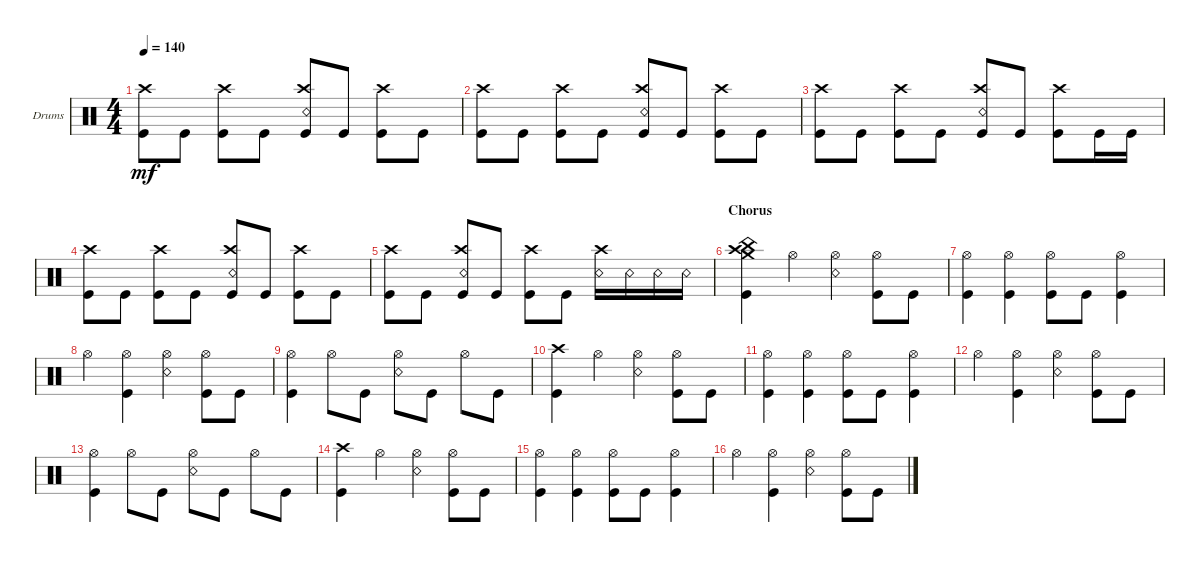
\bracketExtendMode groupsimilarinstruments
\firstSystemTrackNameOrientation horizontal
\otherSystemsTrackNameOrientation horizontal
\track ("Drumkit" "Drums") {instrument percussion}
\staff {score}
\articulation defaults
\ts (4 4)
\tempo 140
\clef neutral
\ks c
("Kick (hit)" "Crash high (hit)").8{dy mf} "Kick (hit)".8 ("Kick (hit)" "Crash high (hit)").8 "Kick (hit)".8 ("Kick (hit)" "Snare (rim shot)" "Crash high (hit)").8 "Kick (hit)".8 ("Kick (hit)" "Crash high (hit)").8 "Kick (hit)".8 |
("Kick (hit)" "Crash high (hit)").8 "Kick (hit)".8 ("Kick (hit)" "Crash high (hit)").8 "Kick (hit)".8 ("Kick (hit)" "Snare (rim shot)" "Crash high (hit)").8 "Kick (hit)".8 ("Kick (hit)" "Crash high (hit)").8 "Kick (hit)".8 |
("Kick (hit)" "Crash high (hit)").8 "Kick (hit)".8 ("Kick (hit)" "Crash high (hit)").8 "Kick (hit)".8 ("Kick (hit)" "Snare (rim shot)" "Crash high (hit)").8 "Kick (hit)".8 ("Kick (hit)" "Crash high (hit)").8 "Kick (hit)".16 "Kick (hit)".16 |
("Kick (hit)" "Crash high (hit)").8 "Kick (hit)".8 ("Kick (hit)" "Crash high (hit)").8 "Kick (hit)".8 ("Kick (hit)" "Snare (rim shot)" "Crash high (hit)").8 "Kick (hit)".8 ("Kick (hit)" "Crash high (hit)").8 "Kick (hit)".8 |
("Kick (hit)" "Crash high (hit)").8 "Kick (hit)".8 ("Kick (hit)" "Crash high (hit)" "Snare (rim shot)").8 "Kick (hit)".8 ("Kick (hit)" "Crash high (hit)").8 "Kick (hit)".8 ("Crash high (hit)" "Snare (rim shot)").16 "Snare (rim shot)".16 "Snare (rim shot)".16 "Snare (rim shot)".16 |
\section ("" "Chorus")
("Kick (hit)" "Crash high (hit)" "Crash medium (hit)" "China (hit)").4 "Hi-Hat (open)".4 ("Snare (rim shot)" "Hi-Hat (open)").4 ("Hi-Hat (open)" "Kick (hit)").8 "Kick (hit)".8 |
("Kick (hit)" "Hi-Hat (open)").4 ("Kick (hit)" "Hi-Hat (open)").4 ("Kick (hit)" "Hi-Hat (open)").8 "Kick (hit)".8 ("Kick (hit)" "Hi-Hat (open)").4 |
"Hi-Hat (open)".4 ("Hi-Hat (open)" "Kick (hit)").4 ("Hi-Hat (open)" "Snare (rim shot)").4 ("Hi-Hat (open)" "Kick (hit)").8 "Kick (hit)".8 |
("Kick (hit)" "Hi-Hat (open)").4 "Hi-Hat (open)".8 "Kick (hit)".8 ("Snare (rim shot)" "Hi-Hat (open)").8 "Kick (hit)".8 "Hi-Hat (open)".8 "Kick (hit)".8 |
("Kick (hit)" "Crash high (hit)").4 "Hi-Hat (open)".4 ("Snare (rim shot)" "Hi-Hat (open)").4 ("Hi-Hat (open)" "Kick (hit)").8 "Kick (hit)".8 |
("Kick (hit)" "Hi-Hat (open)").4 ("Kick (hit)" "Hi-Hat (open)").4 ("Kick (hit)" "Hi-Hat (open)").8 "Kick (hit)".8 ("Kick (hit)" "Hi-Hat (open)").4 |
"Hi-Hat (open)".4 ("Hi-Hat (open)" "Kick (hit)").4 ("Hi-Hat (open)" "Snare (rim shot)").4 ("Hi-Hat (open)" "Kick (hit)").8 "Kick (hit)".8 |
("Kick (hit)" "Hi-Hat (open)").4 "Hi-Hat (open)".8 "Kick (hit)".8 ("Snare (rim shot)" "Hi-Hat (open)").8 "Kick (hit)".8 "Hi-Hat (open)".8 "Kick (hit)".8 |
("Kick (hit)" "Crash high (hit)").4 "Hi-Hat (open)".4 ("Snare (rim shot)" "Hi-Hat (open)").4 ("Hi-Hat (open)" "Kick (hit)").8 "Kick (hit)".8 |
("Kick (hit)" "Hi-Hat (open)").4 ("Kick (hit)" "Hi-Hat (open)").4 ("Kick (hit)" "Hi-Hat (open)").8 "Kick (hit)".8 ("Kick (hit)" "Hi-Hat (open)").4 |
"Hi-Hat (open)".4 ("Hi-Hat (open)" "Kick (hit)").4 ("Hi-Hat (open)" "Snare (rim shot)").4 ("Hi-Hat (open)" "Kick (hit)").8 "Kick (hit)".8
